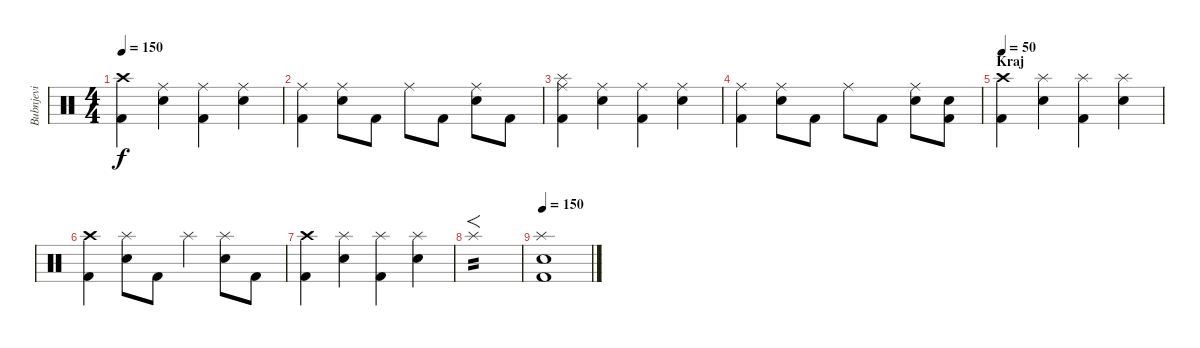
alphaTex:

\track ("Bubnjevi" "Bubnjevi") {instrument percussion}
\staff {score}
\articulation defaults
\ts (4 4)
\tempo 150
\clef neutral
\ks c
("Crash high (hit)" "Kick (hit) 2").4{dy f} ("Ride (middle)" "Snare (hit) 2").4 ("Ride (middle)" "Kick (hit) 2").4 ("Ride (middle)" "Snare (hit) 2").4 |
("Ride (middle)" "Kick (hit) 2").4 ("Ride (middle)" "Snare (hit) 2").8 "Kick (hit) 2".8 "Ride (middle)".8 "Kick (hit) 2".8 ("Ride (middle)" "Snare (hit) 2").8 "Kick (hit) 2".8 |
("Splash (hit)" "Ride (middle)" "Kick (hit) 2").4 ("Ride (middle)" "Snare (hit) 2").4 ("Ride (middle)" "Kick (hit) 2").4 ("Ride (middle)" "Snare (hit) 2").4 |
("Ride (middle)" "Kick (hit) 2").4 ("Ride (middle)" "Snare (hit) 2").8 "Kick (hit) 2".8 "Ride (middle)".8 "Kick (hit) 2".8 ("Ride (middle)" "Snare (hit) 2").8 ("Snare (hit) 2" "Kick (hit) 2").8 |
\section ("" "Kraj")
\tempo 50
("Crash high (hit)" "Kick (hit) 2").4 ("Splash (hit)" "Snare (hit) 2").4 ("Splash (hit)" "Kick (hit) 2").4 ("Splash (hit)" "Snare (hit) 2").4 |
("Crash high (hit)" "Kick (hit) 2").4 ("Splash (hit)" "Snare (hit) 2").8 "Kick (hit) 2".8 "Splash (hit)".4 ("Splash (hit)" "Snare (hit) 2").8 "Kick (hit) 2".8 |
("Crash high (hit)" "Kick (hit) 2").4 ("Splash (hit)" "Snare (hit) 2").4 ("Splash (hit)" "Kick (hit) 2").4 ("Splash (hit)" "Snare (hit) 2").4 |
"Splash (hit)".1{f tp 2} |
\tempo 150
("Splash (hit)" "Snare (hit) 2" "Kick (hit) 2").1
